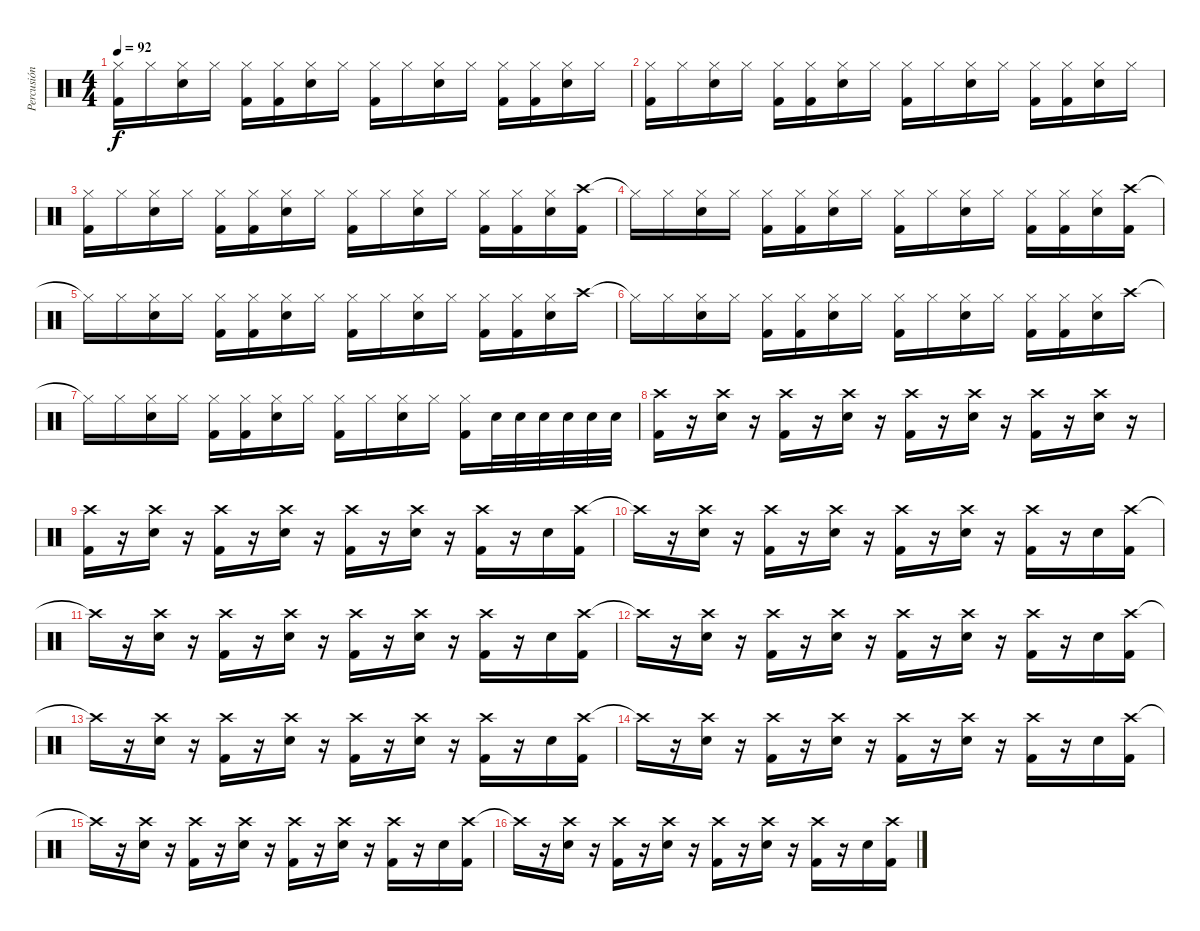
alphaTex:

\track ("Percusión" "Percusión") {instrument percussion}
\staff {score}
\articulation defaults
\ts (4 4)
\tempo 92
\clef neutral
\ks c
("Hi-Hat (closed)" "Kick (hit) 2").16{dy f} "Hi-Hat (closed)".16 ("Hi-Hat (closed)" "Electric Snare (hit)").16 "Hi-Hat (closed)".16 ("Hi-Hat (closed)" "Kick (hit) 2").16 ("Hi-Hat (closed)" "Kick (hit) 2").16 ("Hi-Hat (closed)" "Electric Snare (hit)").16 "Hi-Hat (closed)".16 ("Hi-Hat (closed)" "Kick (hit) 2").16 "Hi-Hat (closed)".16 ("Hi-Hat (closed)" "Electric Snare (hit)").16 "Hi-Hat (closed)".16 ("Hi-Hat (closed)" "Kick (hit) 2").16 ("Hi-Hat (closed)" "Kick (hit) 2").16 ("Hi-Hat (closed)" "Electric Snare (hit)").16 "Hi-Hat (closed)".16 |
("Hi-Hat (closed)" "Kick (hit) 2").16 "Hi-Hat (closed)".16 ("Hi-Hat (closed)" "Electric Snare (hit)").16 "Hi-Hat (closed)".16 ("Hi-Hat (closed)" "Kick (hit) 2").16 ("Hi-Hat (closed)" "Kick (hit) 2").16 ("Hi-Hat (closed)" "Electric Snare (hit)").16 "Hi-Hat (closed)".16 ("Hi-Hat (closed)" "Kick (hit) 2").16 "Hi-Hat (closed)".16 ("Hi-Hat (closed)" "Electric Snare (hit)").16 "Hi-Hat (closed)".16 ("Hi-Hat (closed)" "Kick (hit) 2").16 ("Hi-Hat (closed)" "Kick (hit) 2").16 ("Hi-Hat (closed)" "Electric Snare (hit)").16 "Hi-Hat (closed)".16 |
("Hi-Hat (closed)" "Kick (hit) 2").16 "Hi-Hat (closed)".16 ("Hi-Hat (closed)" "Electric Snare (hit)").16 "Hi-Hat (closed)".16 ("Hi-Hat (closed)" "Kick (hit) 2").16 ("Hi-Hat (closed)" "Kick (hit) 2").16 ("Hi-Hat (closed)" "Electric Snare (hit)").16 "Hi-Hat (closed)".16 ("Hi-Hat (closed)" "Kick (hit) 2").16 "Hi-Hat (closed)".16 ("Hi-Hat (closed)" "Electric Snare (hit)").16 "Hi-Hat (closed)".16 ("Hi-Hat (closed)" "Kick (hit) 2").16 ("Hi-Hat (closed)" "Kick (hit) 2").16 ("Hi-Hat (closed)" "Electric Snare (hit)").16 ("Crash high (hit)" "Kick (hit) 2").16 |
"Hi-Hat (closed)"{t}.16 "Hi-Hat (closed)".16 ("Hi-Hat (closed)" "Electric Snare (hit)").16 "Hi-Hat (closed)".16 ("Hi-Hat (closed)" "Kick (hit) 2").16 ("Hi-Hat (closed)" "Kick (hit) 2").16 ("Hi-Hat (closed)" "Electric Snare (hit)").16 "Hi-Hat (closed)".16 ("Hi-Hat (closed)" "Kick (hit) 2").16 "Hi-Hat (closed)".16 ("Hi-Hat (closed)" "Electric Snare (hit)").16 "Hi-Hat (closed)".16 ("Hi-Hat (closed)" "Kick (hit) 2").16 ("Hi-Hat (closed)" "Kick (hit) 2").16 ("Hi-Hat (closed)" "Electric Snare (hit)").16 ("Crash high (hit)" "Kick (hit) 2").16 |
"Hi-Hat (closed)"{t}.16 "Hi-Hat (closed)".16 ("Hi-Hat (closed)" "Electric Snare (hit)").16 "Hi-Hat (closed)".16 ("Hi-Hat (closed)" "Kick (hit) 2").16 ("Hi-Hat (closed)" "Kick (hit) 2").16 ("Hi-Hat (closed)" "Electric Snare (hit)").16 "Hi-Hat (closed)".16 ("Hi-Hat (closed)" "Kick (hit) 2").16 "Hi-Hat (closed)".16 ("Hi-Hat (closed)" "Electric Snare (hit)").16 "Hi-Hat (closed)".16 ("Hi-Hat (closed)" "Kick (hit) 2").16 ("Hi-Hat (closed)" "Kick (hit) 2").16 ("Hi-Hat (closed)" "Electric Snare (hit)").16 "Crash high (hit)".16 |
"Hi-Hat (closed)"{t}.16 "Hi-Hat (closed)".16 ("Hi-Hat (closed)" "Electric Snare (hit)").16 "Hi-Hat (closed)".16 ("Hi-Hat (closed)" "Kick (hit) 2").16 ("Hi-Hat (closed)" "Kick (hit) 2").16 ("Hi-Hat (closed)" "Electric Snare (hit)").16 "Hi-Hat (closed)".16 ("Hi-Hat (closed)" "Kick (hit) 2").16 "Hi-Hat (closed)".16 ("Hi-Hat (closed)" "Electric Snare (hit)").16 "Hi-Hat (closed)".16 ("Hi-Hat (closed)" "Kick (hit) 2").16 ("Hi-Hat (closed)" "Kick (hit) 2").16 ("Hi-Hat (closed)" "Electric Snare (hit)").16 "Crash high (hit)".16 |
"Hi-Hat (closed)"{t}.16 "Hi-Hat (closed)".16 ("Hi-Hat (closed)" "Electric Snare (hit)").16 "Hi-Hat (closed)".16 ("Hi-Hat (closed)" "Kick (hit) 2").16 ("Hi-Hat (closed)" "Kick (hit) 2").16 ("Hi-Hat (closed)" "Electric Snare (hit)").16 "Hi-Hat (closed)".16 ("Hi-Hat (closed)" "Kick (hit) 2").16 "Hi-Hat (closed)".16 ("Hi-Hat (closed)" "Electric Snare (hit)").16 "Hi-Hat (closed)".16 ("Hi-Hat (closed)" "Kick (hit) 2").16 "Electric Snare (hit)".32 "Electric Snare (hit)".32 "Electric Snare (hit)".32 "Electric Snare (hit)".32 "Electric Snare (hit)".32 "Electric Snare (hit)".32 |
("Crash high (hit)" "Kick (hit) 2").16 r.16 ("Crash high (hit)" "Electric Snare (hit)").16 r.16 ("Crash high (hit)" "Kick (hit) 2").16 r.16 ("Crash high (hit)" "Electric Snare (hit)").16 r.16 ("Crash high (hit)" "Kick (hit) 2").16 r.16 ("Crash high (hit)" "Electric Snare (hit)").16 r.16 ("Crash high (hit)" "Kick (hit) 2").16 r.16 ("Crash high (hit)" "Electric Snare (hit)").16 r.16 |
("Crash high (hit)" "Kick (hit) 2").16 r.16 ("Crash high (hit)" "Electric Snare (hit)").16 r.16 ("Crash high (hit)" "Kick (hit) 2").16 r.16 ("Crash high (hit)" "Electric Snare (hit)").16 r.16 ("Crash high (hit)" "Kick (hit) 2").16 r.16 ("Crash high (hit)" "Electric Snare (hit)").16 r.16 ("Crash high (hit)" "Kick (hit) 2").16 r.16 "Electric Snare (hit)".16 ("Crash high (hit)" "Kick (hit) 2").16 |
"Crash high (hit)"{t}.16 r.16 ("Crash high (hit)" "Electric Snare (hit)").16 r.16 ("Crash high (hit)" "Kick (hit) 2").16 r.16 ("Crash high (hit)" "Electric Snare (hit)").16 r.16 ("Crash high (hit)" "Kick (hit) 2").16 r.16 ("Crash high (hit)" "Electric Snare (hit)").16 r.16 ("Crash high (hit)" "Kick (hit) 2").16 r.16 "Electric Snare (hit)".16 ("Crash high (hit)" "Kick (hit) 2").16 |
"Crash high (hit)"{t}.16 r.16 ("Crash high (hit)" "Electric Snare (hit)").16 r.16 ("Crash high (hit)" "Kick (hit) 2").16 r.16 ("Crash high (hit)" "Electric Snare (hit)").16 r.16 ("Crash high (hit)" "Kick (hit) 2").16 r.16 ("Crash high (hit)" "Electric Snare (hit)").16 r.16 ("Crash high (hit)" "Kick (hit) 2").16 r.16 "Electric Snare (hit)".16 ("Crash high (hit)" "Kick (hit) 2").16 |
"Crash high (hit)"{t}.16 r.16 ("Crash high (hit)" "Electric Snare (hit)").16 r.16 ("Crash high (hit)" "Kick (hit) 2").16 r.16 ("Crash high (hit)" "Electric Snare (hit)").16 r.16 ("Crash high (hit)" "Kick (hit) 2").16 r.16 ("Crash high (hit)" "Electric Snare (hit)").16 r.16 ("Crash high (hit)" "Kick (hit) 2").16 r.16 "Electric Snare (hit)".16 ("Crash high (hit)" "Kick (hit) 2").16 |
"Crash high (hit)"{t}.16 r.16 ("Crash high (hit)" "Electric Snare (hit)").16 r.16 ("Crash high (hit)" "Kick (hit) 2").16 r.16 ("Crash high (hit)" "Electric Snare (hit)").16 r.16 ("Crash high (hit)" "Kick (hit) 2").16 r.16 ("Crash high (hit)" "Electric Snare (hit)").16 r.16 ("Crash high (hit)" "Kick (hit) 2").16 r.16 "Electric Snare (hit)".16 ("Crash high (hit)" "Kick (hit) 2").16 |
"Crash high (hit)"{t}.16 r.16 ("Crash high (hit)" "Electric Snare (hit)").16 r.16 ("Crash high (hit)" "Kick (hit) 2").16 r.16 ("Crash high (hit)" "Electric Snare (hit)").16 r.16 ("Crash high (hit)" "Kick (hit) 2").16 r.16 ("Crash high (hit)" "Electric Snare (hit)").16 r.16 ("Crash high (hit)" "Kick (hit) 2").16 r.16 "Electric Snare (hit)".16 ("Crash high (hit)" "Kick (hit) 2").16 |
"Crash high (hit)"{t}.16 r.16 ("Crash high (hit)" "Electric Snare (hit)").16 r.16 ("Crash high (hit)" "Kick (hit) 2").16 r.16 ("Crash high (hit)" "Electric Snare (hit)").16 r.16 ("Crash high (hit)" "Kick (hit) 2").16 r.16 ("Crash high (hit)" "Electric Snare (hit)").16 r.16 ("Crash high (hit)" "Kick (hit) 2").16 r.16 "Electric Snare (hit)".16 ("Crash high (hit)" "Kick (hit) 2").16 |
"Crash high (hit)"{t}.16 r.16 ("Crash high (hit)" "Electric Snare (hit)").16 r.16 ("Crash high (hit)" "Kick (hit) 2").16 r.16 ("Crash high (hit)" "Electric Snare (hit)").16 r.16 ("Crash high (hit)" "Kick (hit) 2").16 r.16 ("Crash high (hit)" "Electric Snare (hit)").16 r.16 ("Crash high (hit)" "Kick (hit) 2").16 r.16 "Electric Snare (hit)".16 ("Crash high (hit)" "Kick (hit) 2").16
